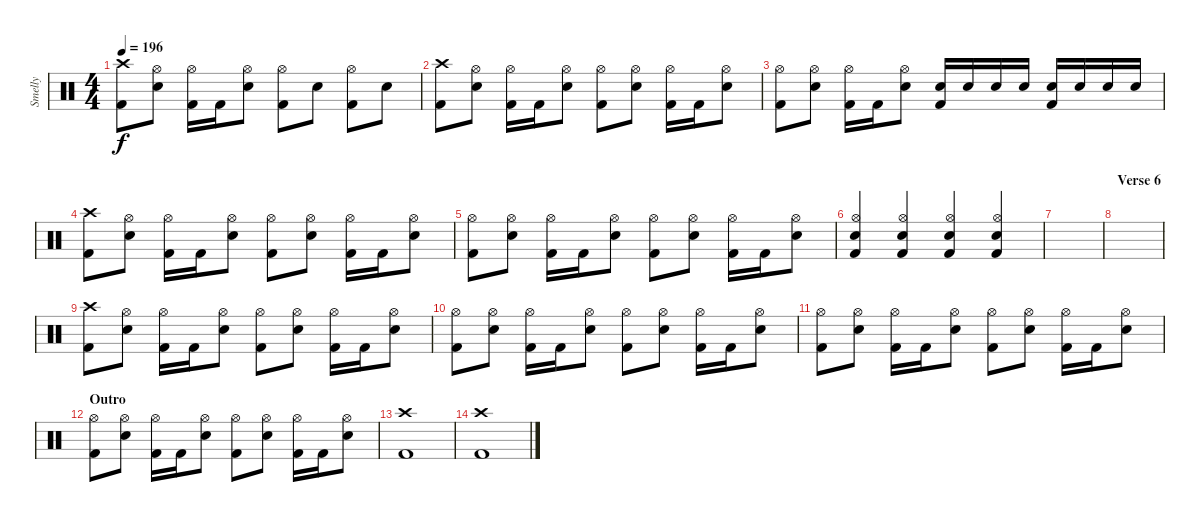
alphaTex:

\track ("Smelly" "Smelly") {instrument percussion}
\staff {score}
\articulation defaults
\ts (4 4)
\tempo 196
\clef neutral
\ks c
("Crash high (hit)" "Kick (hit) 2").8{dy f} ("Hi-Hat (open)" "Snare (hit) 2").8 ("Hi-Hat (open)" "Kick (hit) 2").16 "Kick (hit) 2".16 ("Hi-Hat (open)" "Snare (hit) 2").8 ("Hi-Hat (open)" "Kick (hit) 2").8 "Snare (hit) 2".8 ("Hi-Hat (open)" "Kick (hit) 2").8 "Snare (hit) 2".8 |
("Crash high (hit)" "Kick (hit) 2").8 ("Hi-Hat (open)" "Snare (hit) 2").8 ("Hi-Hat (open)" "Kick (hit) 2").16 "Kick (hit) 2".16 ("Hi-Hat (open)" "Snare (hit) 2").8 ("Hi-Hat (open)" "Kick (hit) 2").8 ("Hi-Hat (open)" "Snare (hit) 2").8 ("Hi-Hat (open)" "Kick (hit) 2").16 "Kick (hit) 2".16 ("Hi-Hat (open)" "Snare (hit) 2").8 |
("Hi-Hat (open)" "Kick (hit) 2").8 ("Hi-Hat (open)" "Snare (hit) 2").8 ("Hi-Hat (open)" "Kick (hit) 2").16 "Kick (hit) 2".16 ("Hi-Hat (open)" "Snare (hit) 2").8 ("Snare (hit) 2" "Kick (hit) 2").16 "Snare (hit) 2".16 "Snare (hit) 2".16 "Snare (hit) 2".16 ("Snare (hit) 2" "Kick (hit) 2").16 "Snare (hit) 2".16 "Snare (hit) 2".16 "Snare (hit) 2".16 |
("Crash high (hit)" "Kick (hit) 2").8 ("Hi-Hat (open)" "Snare (hit) 2").8 ("Hi-Hat (open)" "Kick (hit) 2").16 "Kick (hit) 2".16 ("Hi-Hat (open)" "Snare (hit) 2").8 ("Hi-Hat (open)" "Kick (hit) 2").8 ("Hi-Hat (open)" "Snare (hit) 2").8 ("Hi-Hat (open)" "Kick (hit) 2").16 "Kick (hit) 2".16 ("Hi-Hat (open)" "Snare (hit) 2").8 |
("Hi-Hat (open)" "Kick (hit) 2").8 ("Hi-Hat (open)" "Snare (hit) 2").8 ("Hi-Hat (open)" "Kick (hit) 2").16 "Kick (hit) 2".16 ("Hi-Hat (open)" "Snare (hit) 2").8 ("Hi-Hat (open)" "Kick (hit) 2").8 ("Hi-Hat (open)" "Snare (hit) 2").8 ("Hi-Hat (open)" "Kick (hit) 2").16 "Kick (hit) 2".16 ("Hi-Hat (open)" "Snare (hit) 2").8 |
("Hi-Hat (open)" "Snare (hit) 2" "Kick (hit) 2").4 ("Hi-Hat (open)" "Snare (hit) 2" "Kick (hit) 2").4 ("Hi-Hat (open)" "Snare (hit) 2" "Kick (hit) 2").4 ("Hi-Hat (open)" "Snare (hit) 2" "Kick (hit) 2").4 |
|
\section ("" "Verse 6")
|
("Crash high (hit)" "Kick (hit) 2").8 ("Hi-Hat (open)" "Snare (hit) 2").8 ("Hi-Hat (open)" "Kick (hit) 2").16 "Kick (hit) 2".16 ("Hi-Hat (open)" "Snare (hit) 2").8 ("Hi-Hat (open)" "Kick (hit) 2").8 ("Hi-Hat (open)" "Snare (hit) 2").8 ("Hi-Hat (open)" "Kick (hit) 2").16 "Kick (hit) 2".16 ("Hi-Hat (open)" "Snare (hit) 2").8 |
("Hi-Hat (open)" "Kick (hit) 2").8 ("Hi-Hat (open)" "Snare (hit) 2").8 ("Hi-Hat (open)" "Kick (hit) 2").16 "Kick (hit) 2".16 ("Hi-Hat (open)" "Snare (hit) 2").8 ("Hi-Hat (open)" "Kick (hit) 2").8 ("Hi-Hat (open)" "Snare (hit) 2").8 ("Hi-Hat (open)" "Kick (hit) 2").16 "Kick (hit) 2".16 ("Hi-Hat (open)" "Snare (hit) 2").8 |
("Hi-Hat (open)" "Kick (hit) 2").8 ("Hi-Hat (open)" "Snare (hit) 2").8 ("Hi-Hat (open)" "Kick (hit) 2").16 "Kick (hit) 2".16 ("Hi-Hat (open)" "Snare (hit) 2").8 ("Hi-Hat (open)" "Kick (hit) 2").8 ("Hi-Hat (open)" "Snare (hit) 2").8 ("Hi-Hat (open)" "Kick (hit) 2").16 "Kick (hit) 2".16 ("Hi-Hat (open)" "Snare (hit) 2").8 |
\section ("" "Outro")
("Hi-Hat (open)" "Kick (hit) 2").8 ("Hi-Hat (open)" "Snare (hit) 2").8 ("Hi-Hat (open)" "Kick (hit) 2").16 "Kick (hit) 2".16 ("Hi-Hat (open)" "Snare (hit) 2").8 ("Hi-Hat (open)" "Kick (hit) 2").8 ("Hi-Hat (open)" "Snare (hit) 2").8 ("Hi-Hat (open)" "Kick (hit) 2").16 "Kick (hit) 2".16 ("Hi-Hat (open)" "Snare (hit) 2").8 |
("Crash high (hit)" "Kick (hit) 2").1 |
("Crash high (hit)" "Kick (hit) 2").1
